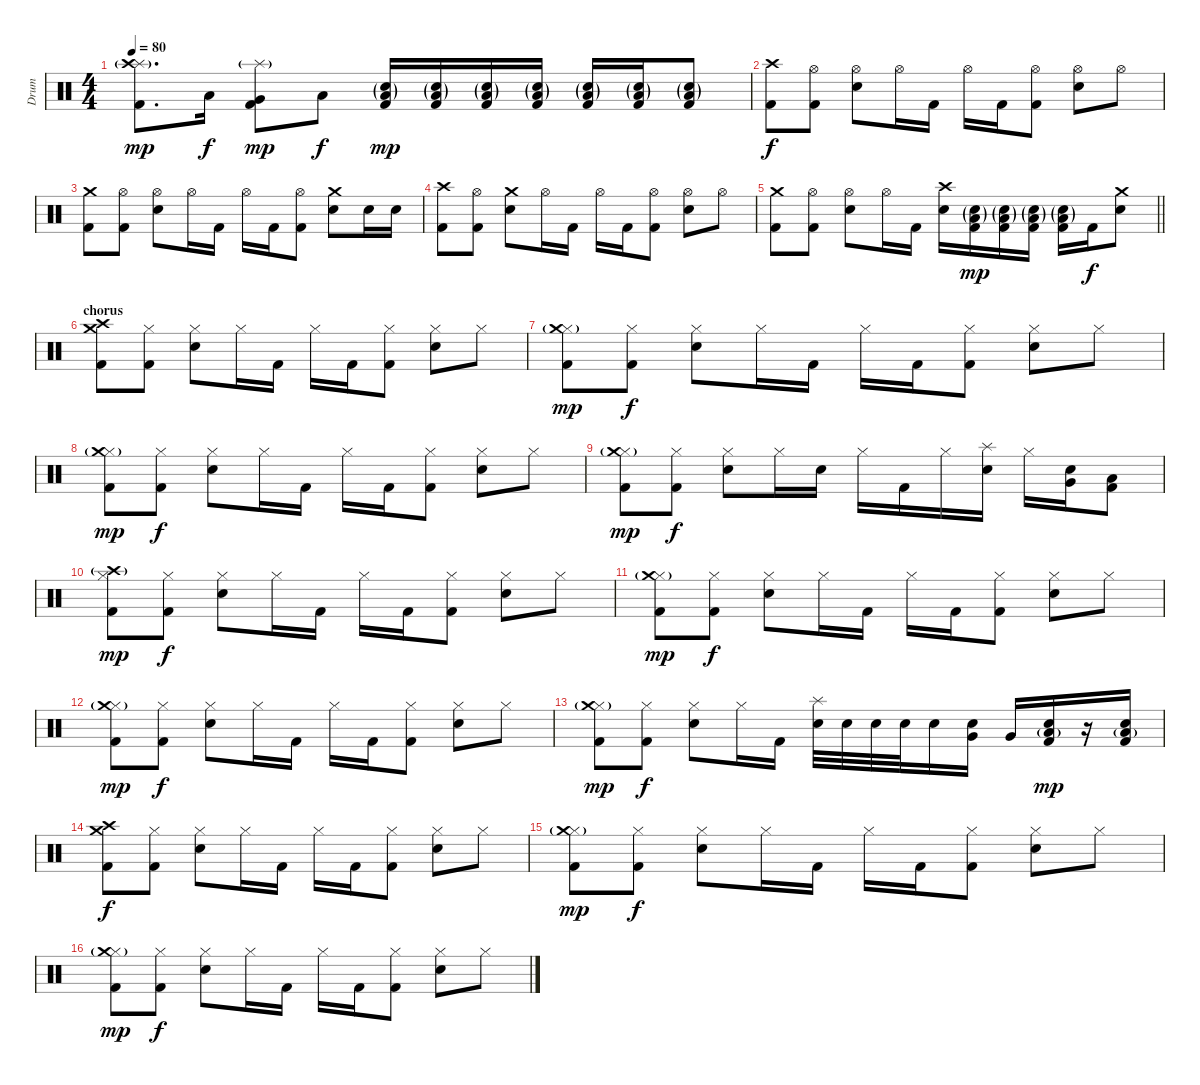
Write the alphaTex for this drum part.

\track ("Drum" "Drum") {instrument percussion}
\staff {score}
\articulation defaults
\ts (4 4)
\tempo 80
\clef neutral
\ks c
("Splash (hit)"{g} "Crash high (hit)"{g} "Kick (hit) 2").8{d dy mp} "Low Tom (hit)".16{dy f} ("Splash (hit)"{g} "Very Low Tom (hit)" "Kick (hit) 2").8{dy mp} "Low Tom (hit)".8{dy f} ("Low Floor Tom (hit)"{g} "Kick (hit) 2" "Electric Snare (hit)"{g}).16{dy mp} ("Low Floor Tom (hit)"{g} "Kick (hit) 2" "Electric Snare (hit)"{g}).16 ("Low Floor Tom (hit)"{g} "Kick (hit) 2" "Electric Snare (hit)"{g}).16 ("Low Floor Tom (hit)"{g} "Kick (hit) 2" "Snare (hit) 2"{g}).16 ("Low Floor Tom (hit)"{g} "Kick (hit) 2" "Snare (hit) 2"{g}).16 ("Low Floor Tom (hit)"{g} "Kick (hit) 2" "Snare (hit) 2"{g}).16 ("Low Floor Tom (hit)"{g} "Kick (hit) 2" "Snare (hit) 2"{g}).8 |
("Crash high (hit)" "Kick (hit) 2").8{dy f} ("Hi-Hat (open)" "Kick (hit) 2").8 ("Hi-Hat (open)" "Electric Snare (hit)").8 "Hi-Hat (open)".16 "Kick (hit) 2".16 "Hi-Hat (open)".16 "Kick (hit) 2".16 ("Hi-Hat (open)" "Kick (hit) 2").8 ("Hi-Hat (open)" "Electric Snare (hit)").8 "Hi-Hat (open)".8 |
("Crash medium (hit)" "Kick (hit) 2").8 ("Hi-Hat (open)" "Kick (hit) 2").8 ("Hi-Hat (open)" "Electric Snare (hit)").8 "Hi-Hat (open)".16 "Kick (hit) 2".16 "Hi-Hat (open)".16 "Kick (hit) 2".16 ("Hi-Hat (open)" "Kick (hit) 2").8 ("Crash medium (hit)" "Electric Snare (hit)").8 "Electric Snare (hit)".16 "Electric Snare (hit)".16 |
("Crash high (hit)" "Kick (hit) 2").8 ("Hi-Hat (open)" "Kick (hit) 2").8 ("Crash medium (hit)" "Electric Snare (hit)").8 "Hi-Hat (open)".16 "Kick (hit) 2".16 "Hi-Hat (open)".16 "Kick (hit) 2".16 ("Hi-Hat (open)" "Kick (hit) 2").8 ("Hi-Hat (open)" "Electric Snare (hit)").8 "Hi-Hat (open)".8 |
\barLineRight lightlight
("Crash medium (hit)" "Kick (hit) 2").8 ("Hi-Hat (open)" "Kick (hit) 2").8 ("Hi-Hat (open)" "Electric Snare (hit)").8 "Hi-Hat (open)".16 "Kick (hit) 2".16 ("Crash high (hit)" "Electric Snare (hit)").16 ("Low Floor Tom (hit)"{g} "Kick (hit) 2" "Electric Snare (hit)"{g}).16{dy mp} ("Low Floor Tom (hit)"{g} "Kick (hit) 2" "Electric Snare (hit)"{g}).16 ("Low Floor Tom (hit)"{g} "Kick (hit) 2" "Electric Snare (hit)"{g}).16 ("Low Floor Tom (hit)"{g} "Kick (hit) 2" "Electric Snare (hit)"{g}).16 "Kick (hit) 2".16{dy f} ("Electric Snare (hit)" "Crash medium (hit)").8 |
\section ("" "chorus")
("Crash high (hit)" "Crash medium (hit)" "Kick (hit) 2").8 ("Hi-Hat (closed)" "Kick (hit) 2").8 ("Hi-Hat (closed)" "Electric Snare (hit)").8 "Hi-Hat (closed)".16 "Kick (hit) 2".16 "Hi-Hat (closed)".16 "Kick (hit) 2".16 ("Hi-Hat (closed)" "Kick (hit) 2").8 ("Hi-Hat (closed)" "Electric Snare (hit)").8 "Hi-Hat (closed)".8 |
("Hi-Hat (closed)" "Kick (hit) 2" "Crash medium (hit)"{g}).8{dy mp} ("Hi-Hat (closed)" "Kick (hit) 2").8{dy f} ("Hi-Hat (closed)" "Electric Snare (hit)").8 "Hi-Hat (closed)".16 "Kick (hit) 2".16 "Hi-Hat (closed)".16 "Kick (hit) 2".16 ("Hi-Hat (closed)" "Kick (hit) 2").8 ("Hi-Hat (closed)" "Electric Snare (hit)").8 "Hi-Hat (closed)".8 |
("Hi-Hat (closed)" "Kick (hit) 2" "Crash medium (hit)"{g}).8{dy mp} ("Hi-Hat (closed)" "Kick (hit) 2").8{dy f} ("Hi-Hat (closed)" "Electric Snare (hit)").8 "Hi-Hat (closed)".16 "Kick (hit) 2".16 "Hi-Hat (closed)".16 "Kick (hit) 2".16 ("Hi-Hat (closed)" "Kick (hit) 2").8 ("Hi-Hat (closed)" "Electric Snare (hit)").8 "Hi-Hat (closed)".8 |
("Hi-Hat (closed)" "Kick (hit) 2" "Crash medium (hit)"{g}).8{dy mp} ("Hi-Hat (closed)" "Kick (hit) 2").8{dy f} ("Hi-Hat (closed)" "Electric Snare (hit)").8 "Hi-Hat (closed)".16 "Electric Snare (hit)".16 "Hi-Hat (closed)".16 "Kick (hit) 2".16 "Hi-Hat (closed)".16 ("Splash (hit)" "Electric Snare (hit)").16 "Hi-Hat (closed)".16 ("Very Low Tom (hit)" "Electric Snare (hit)").16 ("Low Floor Tom (hit)" "Kick (hit) 2").8 |
("Hi-Hat (closed)" "Kick (hit) 2" "Crash high (hit)"{g}).8{dy mp} ("Hi-Hat (closed)" "Kick (hit) 2").8{dy f} ("Hi-Hat (closed)" "Electric Snare (hit)").8 "Hi-Hat (closed)".16 "Kick (hit) 2".16 "Hi-Hat (closed)".16 "Kick (hit) 2".16 ("Hi-Hat (closed)" "Kick (hit) 2").8 ("Hi-Hat (closed)" "Electric Snare (hit)").8 "Hi-Hat (closed)".8 |
("Hi-Hat (closed)" "Kick (hit) 2" "Crash medium (hit)"{g}).8{dy mp} ("Hi-Hat (closed)" "Kick (hit) 2").8{dy f} ("Hi-Hat (closed)" "Electric Snare (hit)").8 "Hi-Hat (closed)".16 "Kick (hit) 2".16 "Hi-Hat (closed)".16 "Kick (hit) 2".16 ("Hi-Hat (closed)" "Kick (hit) 2").8 ("Hi-Hat (closed)" "Electric Snare (hit)").8 "Hi-Hat (closed)".8 |
("Hi-Hat (closed)" "Kick (hit) 2" "Crash medium (hit)"{g}).8{dy mp} ("Hi-Hat (closed)" "Kick (hit) 2").8{dy f} ("Hi-Hat (closed)" "Electric Snare (hit)").8 "Hi-Hat (closed)".16 "Kick (hit) 2".16 "Hi-Hat (closed)".16 "Kick (hit) 2".16 ("Hi-Hat (closed)" "Kick (hit) 2").8 ("Hi-Hat (closed)" "Electric Snare (hit)").8 "Hi-Hat (closed)".8 |
("Hi-Hat (closed)" "Kick (hit) 2" "Crash medium (hit)"{g}).8{dy mp} ("Hi-Hat (closed)" "Kick (hit) 2").8{dy f} ("Hi-Hat (closed)" "Electric Snare (hit)").8 "Hi-Hat (closed)".16 "Kick (hit) 2".16 ("Splash (hit)" "Electric Snare (hit)").32 "Electric Snare (hit)".32 "Electric Snare (hit)".32 "Electric Snare (hit)".32 "Electric Snare (hit)".16 ("Very Low Tom (hit)" "Electric Snare (hit)").16 "Very Low Tom (hit)".16 ("Low Floor Tom (hit)"{g} "Electric Snare (hit)" "Kick (hit) 2").16{dy mp} r.16 ("Low Floor Tom (hit)"{g} "Electric Snare (hit)" "Kick (hit) 2").16 |
("Kick (hit) 2" "Crash high (hit)" "Crash medium (hit)").8{dy f} ("Hi-Hat (closed)" "Kick (hit) 2").8 ("Hi-Hat (closed)" "Electric Snare (hit)").8 "Hi-Hat (closed)".16 "Kick (hit) 2".16 "Hi-Hat (closed)".16 "Kick (hit) 2".16 ("Hi-Hat (closed)" "Kick (hit) 2").8 ("Hi-Hat (closed)" "Electric Snare (hit)").8 "Hi-Hat (closed)".8 |
("Hi-Hat (closed)" "Kick (hit) 2" "Crash medium (hit)"{g}).8{dy mp} ("Hi-Hat (closed)" "Kick (hit) 2").8{dy f} ("Hi-Hat (closed)" "Electric Snare (hit)").8 "Hi-Hat (closed)".16 "Kick (hit) 2".16 "Hi-Hat (closed)".16 "Kick (hit) 2".16 ("Hi-Hat (closed)" "Kick (hit) 2").8 ("Hi-Hat (closed)" "Electric Snare (hit)").8 "Hi-Hat (closed)".8 |
("Hi-Hat (closed)" "Kick (hit) 2" "Crash medium (hit)"{g}).8{dy mp} ("Hi-Hat (closed)" "Kick (hit) 2").8{dy f} ("Hi-Hat (closed)" "Electric Snare (hit)").8 "Hi-Hat (closed)".16 "Kick (hit) 2".16 "Hi-Hat (closed)".16 "Kick (hit) 2".16 ("Hi-Hat (closed)" "Kick (hit) 2").8 ("Hi-Hat (closed)" "Electric Snare (hit)").8 "Hi-Hat (closed)".8
